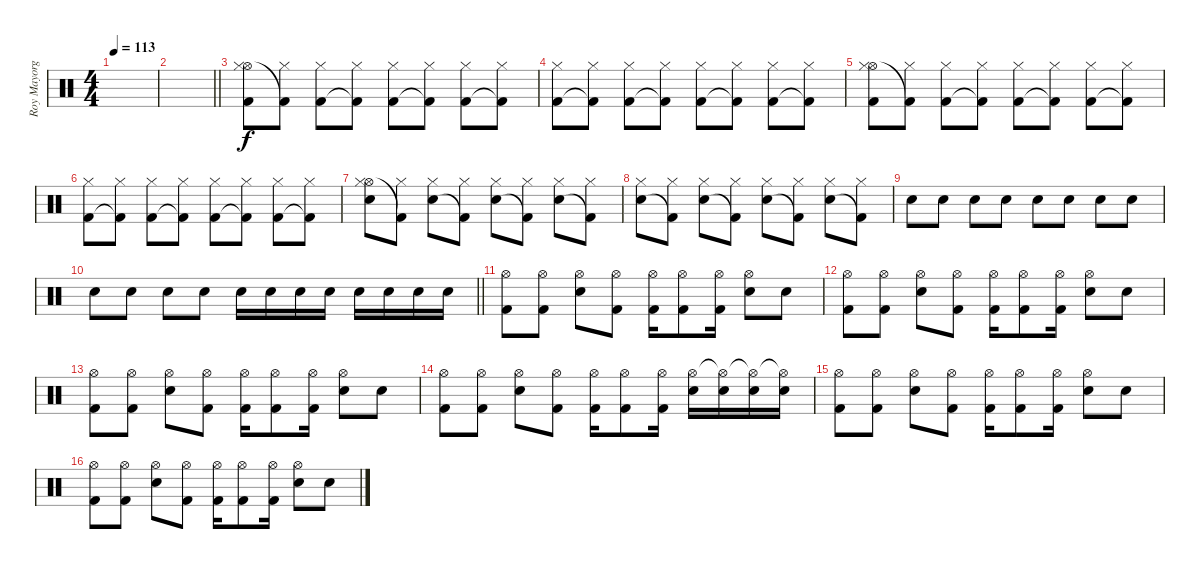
\track ("Roy Mayorga" "Roy Mayorg") {instrument percussion}
\staff {score}
\articulation defaults
\ts (4 4)
\tempo 113
\clef neutral
\ks c
|
\barLineRight lightlight
|
("Hi-Hat (open)" "Hi-Hat (closed)" "Kick (hit) 2").8{volume 7} ("Hi-Hat (closed)" "Kick (hit) 2"{t}).8 ("Hi-Hat (closed)" "Kick (hit) 2").8 ("Hi-Hat (closed)" "Kick (hit) 2"{t}).8 ("Hi-Hat (closed)" "Kick (hit) 2").8 ("Hi-Hat (closed)" "Kick (hit) 2"{t}).8 ("Hi-Hat (closed)" "Kick (hit) 2").8 ("Hi-Hat (closed)" "Kick (hit) 2"{t}).8 |
("Hi-Hat (closed)" "Kick (hit) 2").8{volume 9} ("Hi-Hat (closed)" "Kick (hit) 2"{t}).8 ("Hi-Hat (closed)" "Kick (hit) 2").8 ("Hi-Hat (closed)" "Kick (hit) 2"{t}).8 ("Hi-Hat (closed)" "Kick (hit) 2").8 ("Hi-Hat (closed)" "Kick (hit) 2"{t}).8 ("Hi-Hat (closed)" "Kick (hit) 2").8 ("Hi-Hat (closed)" "Kick (hit) 2"{t}).8 |
("Hi-Hat (open)" "Hi-Hat (closed)" "Kick (hit) 2").8{volume 10} ("Hi-Hat (closed)" "Kick (hit) 2"{t}).8 ("Hi-Hat (closed)" "Kick (hit) 2").8 ("Hi-Hat (closed)" "Kick (hit) 2"{t}).8 ("Hi-Hat (closed)" "Kick (hit) 2").8 ("Hi-Hat (closed)" "Kick (hit) 2"{t}).8 ("Hi-Hat (closed)" "Kick (hit) 2").8 ("Hi-Hat (closed)" "Kick (hit) 2"{t}).8 |
("Hi-Hat (closed)" "Kick (hit) 2").8{volume 12} ("Hi-Hat (closed)" "Kick (hit) 2"{t}).8 ("Hi-Hat (closed)" "Kick (hit) 2").8 ("Hi-Hat (closed)" "Kick (hit) 2"{t}).8 ("Hi-Hat (closed)" "Kick (hit) 2").8 ("Hi-Hat (closed)" "Kick (hit) 2"{t}).8 ("Hi-Hat (closed)" "Kick (hit) 2").8 ("Hi-Hat (closed)" "Kick (hit) 2"{t}).8 |
("Hi-Hat (open)" "Hi-Hat (closed)" "Snare (hit) 2").8{volume 12} ("Hi-Hat (closed)" "Kick (hit) 2"{t}).8 ("Hi-Hat (closed)" "Snare (hit) 2").8 ("Hi-Hat (closed)" "Kick (hit) 2"{t}).8 ("Hi-Hat (closed)" "Snare (hit) 2").8 ("Hi-Hat (closed)" "Kick (hit) 2"{t}).8 ("Hi-Hat (closed)" "Snare (hit) 2").8 ("Hi-Hat (closed)" "Kick (hit) 2"{t}).8 |
("Hi-Hat (closed)" "Snare (hit) 2").8{volume 12} ("Hi-Hat (closed)" "Kick (hit) 2"{t}).8 ("Hi-Hat (closed)" "Snare (hit) 2").8 ("Hi-Hat (closed)" "Kick (hit) 2"{t}).8 ("Hi-Hat (closed)" "Snare (hit) 2").8 ("Hi-Hat (closed)" "Kick (hit) 2"{t}).8 ("Hi-Hat (closed)" "Snare (hit) 2").8 ("Hi-Hat (closed)" "Kick (hit) 2"{t}).8 |
"Electric Snare (hit)".8{volume 13} "Electric Snare (hit)".8 "Electric Snare (hit)".8 "Electric Snare (hit)".8 "Electric Snare (hit)".8 "Electric Snare (hit)".8 "Electric Snare (hit)".8 "Electric Snare (hit)".8 |
\barLineRight lightlight "Electric Snare (hit)".8{volume 15} "Electric Snare (hit)".8 "Electric Snare (hit)".8 "Electric Snare (hit)".8 "Electric Snare (hit)".16 "Electric Snare (hit)".16 "Electric Snare (hit)".16 "Electric Snare (hit)".16 "Electric Snare (hit)".16 "Electric Snare (hit)".16 "Electric Snare (hit)".16 "Electric Snare (hit)".16
|
("Hi-Hat (open)" "Kick (hit) 2").8 ("Hi-Hat (open)" "Kick (hit) 2").8 ("Hi-Hat (open)" "Snare (hit) 2").8 ("Hi-Hat (open)" "Kick (hit) 2").8 ("Hi-Hat (open)" "Kick (hit) 2").16 ("Hi-Hat (open)" "Kick (hit) 2").8 ("Hi-Hat (open)" "Kick (hit) 2").16 ("Hi-Hat (open)" "Snare (hit) 2").8 "Snare (hit) 2".8 |
("Hi-Hat (open)" "Kick (hit) 2").8 ("Hi-Hat (open)" "Kick (hit) 2").8 ("Hi-Hat (open)" "Snare (hit) 2").8 ("Hi-Hat (open)" "Kick (hit) 2").8 ("Hi-Hat (open)" "Kick (hit) 2").16 ("Hi-Hat (open)" "Kick (hit) 2").8 ("Hi-Hat (open)" "Kick (hit) 2").16 ("Hi-Hat (open)" "Snare (hit) 2").8 "Snare (hit) 2".8 |
("Hi-Hat (open)" "Kick (hit) 2").8 ("Hi-Hat (open)" "Kick (hit) 2").8 ("Hi-Hat (open)" "Snare (hit) 2").8 ("Hi-Hat (open)" "Kick (hit) 2").8 ("Hi-Hat (open)" "Kick (hit) 2").16 ("Hi-Hat (open)" "Kick (hit) 2").8 ("Hi-Hat (open)" "Kick (hit) 2").16 ("Hi-Hat (open)" "Snare (hit) 2").8 "Snare (hit) 2".8 |
("Hi-Hat (open)" "Kick (hit) 2").8 ("Hi-Hat (open)" "Kick (hit) 2").8 ("Hi-Hat (open)" "Snare (hit) 2").8 ("Hi-Hat (open)" "Kick (hit) 2").8 ("Hi-Hat (open)" "Kick (hit) 2").16 ("Hi-Hat (open)" "Kick (hit) 2").8 ("Hi-Hat (open)" "Kick (hit) 2").16 ("Hi-Hat (open)" "Snare (hit) 2").16 ("Hi-Hat (open)"{t} "Snare (hit) 2").16 ("Hi-Hat (open)"{t} "Snare (hit) 2").16 ("Hi-Hat (open)"{t} "Snare (hit) 2").16 |
("Hi-Hat (open)" "Kick (hit) 2").8 ("Hi-Hat (open)" "Kick (hit) 2").8 ("Hi-Hat (open)" "Snare (hit) 2").8 ("Hi-Hat (open)" "Kick (hit) 2").8 ("Hi-Hat (open)" "Kick (hit) 2").16 ("Hi-Hat (open)" "Kick (hit) 2").8 ("Hi-Hat (open)" "Kick (hit) 2").16 ("Hi-Hat (open)" "Snare (hit) 2").8 "Snare (hit) 2".8 |
("Hi-Hat (open)" "Kick (hit) 2").8 ("Hi-Hat (open)" "Kick (hit) 2").8 ("Hi-Hat (open)" "Snare (hit) 2").8 ("Hi-Hat (open)" "Kick (hit) 2").8 ("Hi-Hat (open)" "Kick (hit) 2").16 ("Hi-Hat (open)" "Kick (hit) 2").8 ("Hi-Hat (open)" "Kick (hit) 2").16 ("Hi-Hat (open)" "Snare (hit) 2").8 "Snare (hit) 2".8
